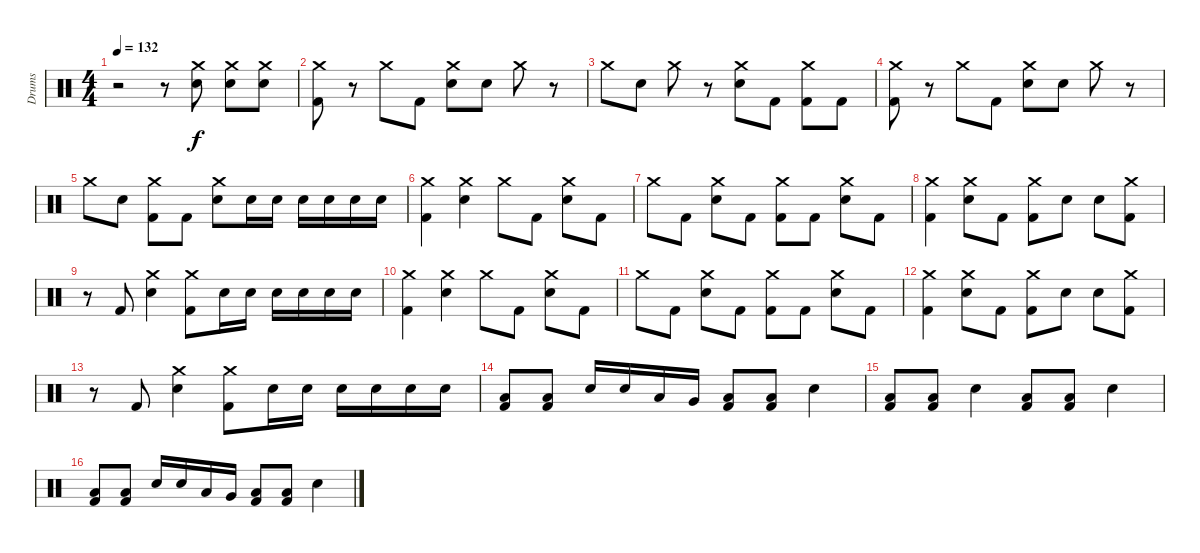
\track ("Drums" "Drums") {instrument percussion}
\staff
\articulation defaults
\ts (4 4)
\tempo 132
\clef neutral
\ks c
r.2{dy ppp} r.8 ("Crash medium (hit)" "Snare (hit) 2").8{dy f} ("Crash medium (hit)" "Snare (hit) 2").8 ("Crash medium (hit)" "Snare (hit) 2").8 |
("Crash medium (hit)" "Kick (hit) 2").8 r.8 "Crash medium (hit)".8 "Kick (hit) 2".8 ("Crash medium (hit)" "Snare (hit) 2").8 "Snare (hit) 2".8 "Crash medium (hit)".8 r.8 |
"Crash medium (hit)".8 "Snare (hit) 2".8 "Crash medium (hit)".8 r.8 ("Crash medium (hit)" "Snare (hit) 2").8 "Kick (hit) 2".8 ("Crash medium (hit)" "Kick (hit) 2").8 "Kick (hit) 2".8 |
("Crash medium (hit)" "Kick (hit) 2").8 r.8 "Crash medium (hit)".8 "Kick (hit) 2".8 ("Crash medium (hit)" "Snare (hit) 2").8 "Snare (hit) 2".8 "Crash medium (hit)".8 r.8 |
"Crash medium (hit)".8 "Snare (hit) 2".8 ("Crash medium (hit)" "Kick (hit) 2").8 "Kick (hit) 2".8 ("Crash medium (hit)" "Snare (hit) 2").8 "Snare (hit) 2".16 "Snare (hit) 2".16 "Snare (hit) 2".16 "Snare (hit) 2".16 "Snare (hit) 2".16 "Snare (hit) 2".16 |
("Crash medium (hit)" "Kick (hit) 2").4 ("Crash medium (hit)" "Snare (hit) 2").4 "Crash medium (hit)".8 "Kick (hit) 2".8 ("Crash medium (hit)" "Snare (hit) 2").8 "Kick (hit) 2".8 |
"Crash medium (hit)".8 "Kick (hit) 2".8 ("Crash medium (hit)" "Snare (hit) 2").8 "Kick (hit) 2".8 ("Crash medium (hit)" "Kick (hit) 2").8 "Kick (hit) 2".8 ("Crash medium (hit)" "Snare (hit) 2").8 "Kick (hit) 2".8 |
("Crash medium (hit)" "Kick (hit) 2").4 ("Crash medium (hit)" "Snare (hit) 2").8 "Kick (hit) 2".8 ("Crash medium (hit)" "Kick (hit) 2").8 "Snare (hit) 2".8 "Snare (hit) 2".8 ("Crash medium (hit)" "Kick (hit) 2").8 |
r.8 "Kick (hit) 2".8 ("Crash medium (hit)" "Snare (hit) 2").4 ("Crash medium (hit)" "Kick (hit) 2").8 "Snare (hit) 2".16 "Snare (hit) 2".16 "Snare (hit) 2".16 "Snare (hit) 2".16 "Snare (hit) 2".16 "Snare (hit) 2".16 |
("Crash medium (hit)" "Kick (hit) 2").4 ("Crash medium (hit)" "Snare (hit) 2").4 "Crash medium (hit)".8 "Kick (hit) 2".8 ("Crash medium (hit)" "Snare (hit) 2").8 "Kick (hit) 2".8 |
"Crash medium (hit)".8 "Kick (hit) 2".8 ("Crash medium (hit)" "Snare (hit) 2").8 "Kick (hit) 2".8 ("Crash medium (hit)" "Kick (hit) 2").8 "Kick (hit) 2".8 ("Crash medium (hit)" "Snare (hit) 2").8 "Kick (hit) 2".8 |
("Crash medium (hit)" "Kick (hit) 2").4 ("Crash medium (hit)" "Snare (hit) 2").8 "Kick (hit) 2".8 ("Crash medium (hit)" "Kick (hit) 2").8 "Snare (hit) 2".8 "Snare (hit) 2".8 ("Crash medium (hit)" "Kick (hit) 2").8 |
r.8 "Kick (hit) 2".8 ("Crash medium (hit)" "Snare (hit) 2").4 ("Crash medium (hit)" "Kick (hit) 2").8 "Snare (hit) 2".16 "Snare (hit) 2".16 "Snare (hit) 2".16 "Snare (hit) 2".16 "Snare (hit) 2".16 "Snare (hit) 2".16 |
("Low Floor Tom (hit)" "Kick (hit) 2").8 ("Low Floor Tom (hit)" "Kick (hit) 2").8 "Snare (hit) 2".16 "Snare (hit) 2".16 "Low Floor Tom (hit)".16 "Very Low Tom (hit)".16 ("Low Floor Tom (hit)" "Kick (hit) 2").8 ("Low Floor Tom (hit)" "Kick (hit) 2").8 "Snare (hit) 2".4 |
("Low Floor Tom (hit)" "Kick (hit) 2").8 ("Low Floor Tom (hit)" "Kick (hit) 2").8 "Snare (hit) 2".4 ("Low Floor Tom (hit)" "Kick (hit) 2").8 ("Low Floor Tom (hit)" "Kick (hit) 2").8 "Snare (hit) 2".4 |
("Low Floor Tom (hit)" "Kick (hit) 2").8 ("Low Floor Tom (hit)" "Kick (hit) 2").8 "Snare (hit) 2".16 "Snare (hit) 2".16 "Low Floor Tom (hit)".16 "Very Low Tom (hit)".16 ("Low Floor Tom (hit)" "Kick (hit) 2").8 ("Low Floor Tom (hit)" "Kick (hit) 2").8 "Snare (hit) 2".4
